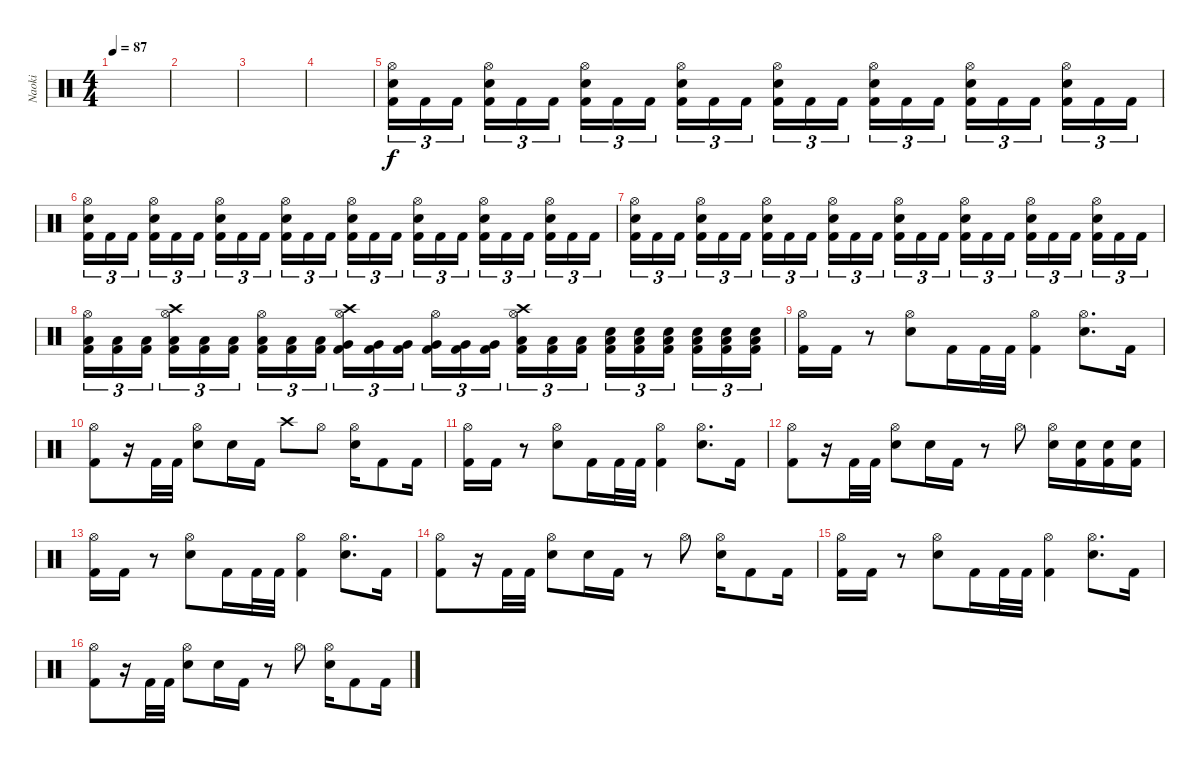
\track ("Naoki" "Naoki") {instrument percussion}
\staff {score}
\articulation defaults
\ts (4 4)
\tempo 87
\tempo 102
\tempo 87
\clef neutral
\ks c
|
|
|
|
("Hi-Hat (open)" "Electric Snare (hit)" "Kick (hit) 2").16{tu (3 2)} "Kick (hit) 2".16{tu (3 2)} "Kick (hit) 2".16{tu (3 2) beam splitsecondary} ("Hi-Hat (open)" "Electric Snare (hit)" "Kick (hit) 2").16{tu (3 2)} "Kick (hit) 2".16{tu (3 2)} "Kick (hit) 2".16{tu (3 2)} ("Hi-Hat (open)" "Electric Snare (hit)" "Kick (hit) 2").16{tu (3 2)} "Kick (hit) 2".16{tu (3 2)} "Kick (hit) 2".16{tu (3 2) beam splitsecondary} ("Hi-Hat (open)" "Electric Snare (hit)" "Kick (hit) 2").16{tu (3 2)} "Kick (hit) 2".16{tu (3 2)} "Kick (hit) 2".16{tu (3 2)} ("Hi-Hat (open)" "Electric Snare (hit)" "Kick (hit) 2").16{tu (3 2)} "Kick (hit) 2".16{tu (3 2)} "Kick (hit) 2".16{tu (3 2) beam splitsecondary} ("Hi-Hat (open)" "Electric Snare (hit)" "Kick (hit) 2").16{tu (3 2)} "Kick (hit) 2".16{tu (3 2)} "Kick (hit) 2".16{tu (3 2)} ("Hi-Hat (open)" "Electric Snare (hit)" "Kick (hit) 2").16{tu (3 2)} "Kick (hit) 2".16{tu (3 2)} "Kick (hit) 2".16{tu (3 2) beam splitsecondary} ("Hi-Hat (open)" "Electric Snare (hit)" "Kick (hit) 2").16{tu (3 2)} "Kick (hit) 2".16{tu (3 2)} "Kick (hit) 2".16{tu (3 2)} |
("Hi-Hat (open)" "Electric Snare (hit)" "Kick (hit) 2").16{tu (3 2)} "Kick (hit) 2".16{tu (3 2)} "Kick (hit) 2".16{tu (3 2) beam splitsecondary} ("Hi-Hat (open)" "Electric Snare (hit)" "Kick (hit) 2").16{tu (3 2)} "Kick (hit) 2".16{tu (3 2)} "Kick (hit) 2".16{tu (3 2)} ("Hi-Hat (open)" "Electric Snare (hit)" "Kick (hit) 2").16{tu (3 2)} "Kick (hit) 2".16{tu (3 2)} "Kick (hit) 2".16{tu (3 2) beam splitsecondary} ("Hi-Hat (open)" "Electric Snare (hit)" "Kick (hit) 2").16{tu (3 2)} "Kick (hit) 2".16{tu (3 2)} "Kick (hit) 2".16{tu (3 2)} ("Hi-Hat (open)" "Electric Snare (hit)" "Kick (hit) 2").16{tu (3 2)} "Kick (hit) 2".16{tu (3 2)} "Kick (hit) 2".16{tu (3 2) beam splitsecondary} ("Hi-Hat (open)" "Electric Snare (hit)" "Kick (hit) 2").16{tu (3 2)} "Kick (hit) 2".16{tu (3 2)} "Kick (hit) 2".16{tu (3 2)} ("Hi-Hat (open)" "Electric Snare (hit)" "Kick (hit) 2").16{tu (3 2)} "Kick (hit) 2".16{tu (3 2)} "Kick (hit) 2".16{tu (3 2) beam splitsecondary} ("Hi-Hat (open)" "Electric Snare (hit)" "Kick (hit) 2").16{tu (3 2)} "Kick (hit) 2".16{tu (3 2)} "Kick (hit) 2".16{tu (3 2)} |
("Hi-Hat (open)" "Electric Snare (hit)" "Kick (hit) 2").16{tu (3 2)} "Kick (hit) 2".16{tu (3 2)} "Kick (hit) 2".16{tu (3 2) beam splitsecondary} ("Hi-Hat (open)" "Electric Snare (hit)" "Kick (hit) 2").16{tu (3 2)} "Kick (hit) 2".16{tu (3 2)} "Kick (hit) 2".16{tu (3 2)} ("Hi-Hat (open)" "Electric Snare (hit)" "Kick (hit) 2").16{tu (3 2)} "Kick (hit) 2".16{tu (3 2)} "Kick (hit) 2".16{tu (3 2) beam splitsecondary} ("Hi-Hat (open)" "Electric Snare (hit)" "Kick (hit) 2").16{tu (3 2)} "Kick (hit) 2".16{tu (3 2)} "Kick (hit) 2".16{tu (3 2)} ("Hi-Hat (open)" "Electric Snare (hit)" "Kick (hit) 2").16{tu (3 2)} "Kick (hit) 2".16{tu (3 2)} "Kick (hit) 2".16{tu (3 2) beam splitsecondary} ("Hi-Hat (open)" "Electric Snare (hit)" "Kick (hit) 2").16{tu (3 2)} "Kick (hit) 2".16{tu (3 2)} "Kick (hit) 2".16{tu (3 2)} ("Hi-Hat (open)" "Electric Snare (hit)" "Kick (hit) 2").16{tu (3 2)} "Kick (hit) 2".16{tu (3 2)} "Kick (hit) 2".16{tu (3 2) beam splitsecondary} ("Hi-Hat (open)" "Electric Snare (hit)" "Kick (hit) 2").16{tu (3 2)} "Kick (hit) 2".16{tu (3 2)} "Kick (hit) 2".16{tu (3 2)} |
("Hi-Hat (open)" "Low Tom (hit)" "Kick (hit) 2").16{tu (3 2)} ("Low Tom (hit)" "Kick (hit) 2").16{tu (3 2)} ("Low Tom (hit)" "Kick (hit) 2").16{tu (3 2) beam splitsecondary} ("Crash high (hit)" "Hi-Hat (open)" "Low Tom (hit)" "Kick (hit) 2").16{tu (3 2)} ("Low Tom (hit)" "Kick (hit) 2").16{tu (3 2)} ("Low Tom (hit)" "Kick (hit) 2").16{tu (3 2)} ("Hi-Hat (open)" "Low Tom (hit)" "Kick (hit) 2").16{tu (3 2)} ("Low Tom (hit)" "Kick (hit) 2").16{tu (3 2)} ("Low Tom (hit)" "Kick (hit) 2").16{tu (3 2) beam splitsecondary} ("Crash high (hit)" "Hi-Hat (open)" "Very Low Tom (hit)" "Kick (hit) 2").16{tu (3 2)} ("Very Low Tom (hit)" "Kick (hit) 2").16{tu (3 2)} ("Very Low Tom (hit)" "Kick (hit) 2").16{tu (3 2)} ("Hi-Hat (open)" "Very Low Tom (hit)" "Kick (hit) 2").16{tu (3 2)} ("Very Low Tom (hit)" "Kick (hit) 2").16{tu (3 2)} ("Very Low Tom (hit)" "Kick (hit) 2").16{tu (3 2) beam splitsecondary} ("Crash high (hit)" "Hi-Hat (open)" "Low Floor Tom (hit)" "Kick (hit) 2").16{tu (3 2)} ("Low Floor Tom (hit)" "Kick (hit) 2").16{tu (3 2)} ("Low Floor Tom (hit)" "Kick (hit) 2").16{tu (3 2)} ("Electric Snare (hit)" "Low Floor Tom (hit)" "Kick (hit) 2").16{tu (3 2)} ("Electric Snare (hit)" "Low Floor Tom (hit)" "Kick (hit) 2").16{tu (3 2)} ("Electric Snare (hit)" "Low Floor Tom (hit)" "Kick (hit) 2").16{tu (3 2) beam splitsecondary} ("Electric Snare (hit)" "Low Floor Tom (hit)" "Kick (hit) 2").16{tu (3 2)} ("Electric Snare (hit)" "Low Floor Tom (hit)" "Kick (hit) 2").16{tu (3 2)} ("Electric Snare (hit)" "Low Floor Tom (hit)" "Kick (hit) 2").16{tu (3 2)} |
("Hi-Hat (open)" "Kick (hit) 2").16 "Kick (hit) 2".16 r.8 ("Hi-Hat (open)" "Electric Snare (hit)").8 "Kick (hit) 2".16 "Kick (hit) 2".32 "Kick (hit) 2".32 ("Hi-Hat (open)" "Kick (hit) 2").4 ("Hi-Hat (open)" "Electric Snare (hit)").8{d} "Kick (hit) 2".16 |
("Hi-Hat (open)" "Kick (hit) 2").8 r.16 "Kick (hit) 2".32 "Kick (hit) 2".32 ("Hi-Hat (open)" "Electric Snare (hit)").8 "Electric Snare (hit)".16 "Kick (hit) 2".16 "Crash high (hit)".8 "Hi-Hat (open)".8 ("Hi-Hat (open)" "Electric Snare (hit)").16 "Kick (hit) 2".8 "Kick (hit) 2".16 |
("Hi-Hat (open)" "Kick (hit) 2").16 "Kick (hit) 2".16 r.8 ("Hi-Hat (open)" "Electric Snare (hit)").8 "Kick (hit) 2".16 "Kick (hit) 2".32 "Kick (hit) 2".32 ("Hi-Hat (open)" "Kick (hit) 2").4 ("Hi-Hat (open)" "Electric Snare (hit)").8{d} "Kick (hit) 2".16 |
("Hi-Hat (open)" "Kick (hit) 2").8 r.16 "Kick (hit) 2".32 "Kick (hit) 2".32 ("Hi-Hat (open)" "Electric Snare (hit)").8 "Electric Snare (hit)".16 "Kick (hit) 2".16 r.8 "Hi-Hat (open)".8 ("Hi-Hat (open)" "Electric Snare (hit)").16 ("Electric Snare (hit)" "Kick (hit) 2").16 ("Electric Snare (hit)" "Kick (hit) 2").16 ("Electric Snare (hit)" "Kick (hit) 2").16 |
("Hi-Hat (open)" "Kick (hit) 2").16 "Kick (hit) 2".16 r.8 ("Hi-Hat (open)" "Electric Snare (hit)").8 "Kick (hit) 2".16 "Kick (hit) 2".32 "Kick (hit) 2".32 ("Hi-Hat (open)" "Kick (hit) 2").4 ("Hi-Hat (open)" "Electric Snare (hit)").8{d} "Kick (hit) 2".16 |
("Hi-Hat (open)" "Kick (hit) 2").8 r.16 "Kick (hit) 2".32 "Kick (hit) 2".32 ("Hi-Hat (open)" "Electric Snare (hit)").8 "Electric Snare (hit)".16 "Kick (hit) 2".16 r.8 "Hi-Hat (open)".8 ("Hi-Hat (open)" "Electric Snare (hit)").16 "Kick (hit) 2".8 "Kick (hit) 2".16 |
("Hi-Hat (open)" "Kick (hit) 2").16 "Kick (hit) 2".16 r.8 ("Hi-Hat (open)" "Electric Snare (hit)").8 "Kick (hit) 2".16 "Kick (hit) 2".32 "Kick (hit) 2".32 ("Hi-Hat (open)" "Kick (hit) 2").4 ("Hi-Hat (open)" "Electric Snare (hit)").8{d} "Kick (hit) 2".16 |
("Hi-Hat (open)" "Kick (hit) 2").8 r.16 "Kick (hit) 2".32 "Kick (hit) 2".32 ("Hi-Hat (open)" "Electric Snare (hit)").8 "Electric Snare (hit)".16 "Kick (hit) 2".16 r.8 "Hi-Hat (open)".8 ("Hi-Hat (open)" "Electric Snare (hit)").16 "Kick (hit) 2".8 "Kick (hit) 2".16
